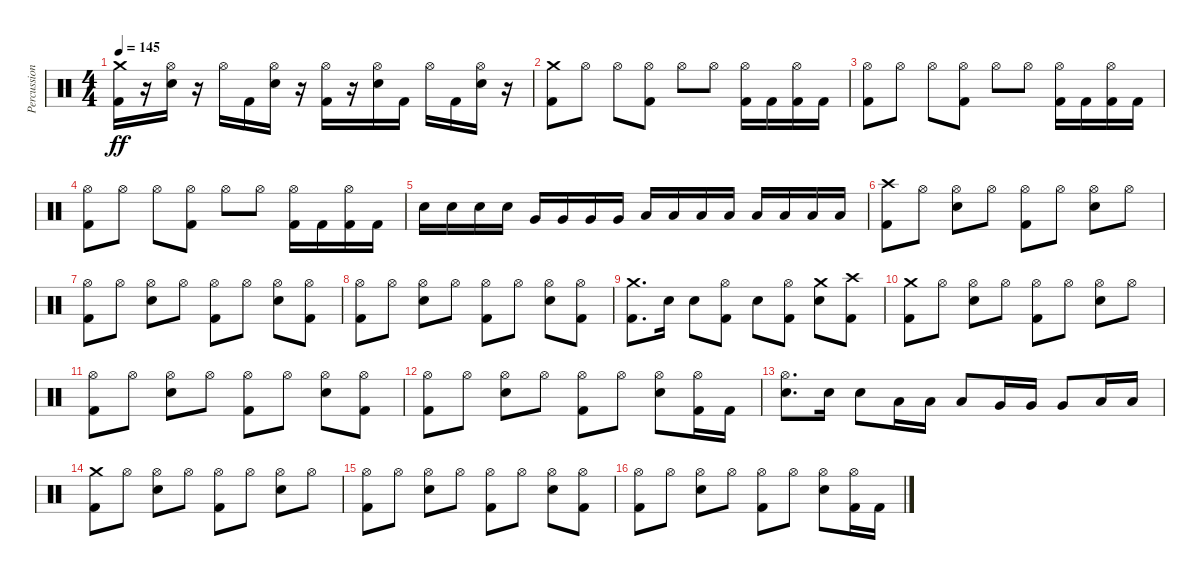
\track ("Percussion" "Percussion") {instrument percussion}
\staff {score}
\articulation defaults
\ts (4 4)
\tempo 145
\clef neutral
\ks c
("Crash medium (hit)" "Kick (hit) 2").16{dy ff} r.16 ("Hi-Hat (open)" "Electric Snare (hit)").16 r.16 "Hi-Hat (open)".16 "Kick (hit) 2".16 ("Hi-Hat (open)" "Electric Snare (hit)").16 r.16 ("Hi-Hat (open)" "Kick (hit) 2").16 r.16 ("Hi-Hat (open)" "Electric Snare (hit)").16 "Kick (hit) 2".16 "Hi-Hat (open)".16 "Kick (hit) 2".16 ("Hi-Hat (open)" "Electric Snare (hit)").16 r.16 |
("Crash medium (hit)" "Kick (hit) 2").8 "Hi-Hat (open)".8 "Hi-Hat (open)".8 ("Hi-Hat (open)" "Kick (hit) 2").8 "Hi-Hat (open)".8 "Hi-Hat (open)".8 ("Hi-Hat (open)" "Kick (hit) 2").16 "Kick (hit) 2".16 ("Hi-Hat (open)" "Kick (hit) 2").16 "Kick (hit) 2".16 |
("Hi-Hat (open)" "Kick (hit) 2").8 "Hi-Hat (open)".8 "Hi-Hat (open)".8 ("Hi-Hat (open)" "Kick (hit) 2").8 "Hi-Hat (open)".8 "Hi-Hat (open)".8 ("Hi-Hat (open)" "Kick (hit) 2").16 "Kick (hit) 2".16 ("Hi-Hat (open)" "Kick (hit) 2").16 "Kick (hit) 2".16 |
("Hi-Hat (open)" "Kick (hit) 2").8 "Hi-Hat (open)".8 "Hi-Hat (open)".8 ("Hi-Hat (open)" "Kick (hit) 2").8 "Hi-Hat (open)".8 "Hi-Hat (open)".8 ("Hi-Hat (open)" "Kick (hit) 2").16 "Kick (hit) 2".16 ("Hi-Hat (open)" "Kick (hit) 2").16 "Kick (hit) 2".16 |
"Snare (hit) 2".16 "Snare (hit) 2".16 "Snare (hit) 2".16 "Snare (hit) 2".16 "Very Low Tom (hit)".16 "Very Low Tom (hit)".16 "Very Low Tom (hit)".16 "Very Low Tom (hit)".16 "Low Tom (hit)".16 "Low Tom (hit)".16 "Low Tom (hit)".16 "Low Tom (hit)".16 "Low Floor Tom (hit)".16 "Low Floor Tom (hit)".16 "Low Floor Tom (hit)".16 "Low Floor Tom (hit)".16 |
("Crash high (hit)" "Kick (hit) 2").8 "Hi-Hat (open)".8 ("Hi-Hat (open)" "Electric Snare (hit)").8 "Hi-Hat (open)".8 ("Hi-Hat (open)" "Kick (hit) 2").8 "Hi-Hat (open)".8 ("Hi-Hat (open)" "Electric Snare (hit)").8 "Hi-Hat (open)".8 |
("Hi-Hat (open)" "Kick (hit) 2").8 "Hi-Hat (open)".8 ("Hi-Hat (open)" "Electric Snare (hit)").8 "Hi-Hat (open)".8 ("Hi-Hat (open)" "Kick (hit) 2").8 "Hi-Hat (open)".8 ("Hi-Hat (open)" "Electric Snare (hit)").8 ("Hi-Hat (open)" "Kick (hit) 2").8 |
("Hi-Hat (open)" "Kick (hit) 2").8 "Hi-Hat (open)".8 ("Hi-Hat (open)" "Electric Snare (hit)").8 "Hi-Hat (open)".8 ("Hi-Hat (open)" "Kick (hit) 2").8 "Hi-Hat (open)".8 ("Hi-Hat (open)" "Electric Snare (hit)").8 ("Hi-Hat (open)" "Kick (hit) 2").8 |
("Crash medium (hit)" "Kick (hit) 2").8{d} "Electric Snare (hit)".16 "Electric Snare (hit)".8 ("Hi-Hat (open)" "Kick (hit) 2").8 "Electric Snare (hit)".8 ("Hi-Hat (open)" "Kick (hit) 2").8 ("Crash medium (hit)" "Electric Snare (hit)").8 ("Crash high (hit)" "Kick (hit) 2").8 |
("Crash medium (hit)" "Kick (hit) 2").8 "Hi-Hat (open)".8 ("Hi-Hat (open)" "Electric Snare (hit)").8 "Hi-Hat (open)".8 ("Hi-Hat (open)" "Kick (hit) 2").8 "Hi-Hat (open)".8 ("Hi-Hat (open)" "Electric Snare (hit)").8 "Hi-Hat (open)".8 |
("Hi-Hat (open)" "Kick (hit) 2").8 "Hi-Hat (open)".8 ("Hi-Hat (open)" "Electric Snare (hit)").8 "Hi-Hat (open)".8 ("Hi-Hat (open)" "Kick (hit) 2").8 "Hi-Hat (open)".8 ("Hi-Hat (open)" "Electric Snare (hit)").8 ("Hi-Hat (open)" "Kick (hit) 2").8 |
("Hi-Hat (open)" "Kick (hit) 2").8 "Hi-Hat (open)".8 ("Hi-Hat (open)" "Electric Snare (hit)").8 "Hi-Hat (open)".8 ("Hi-Hat (open)" "Kick (hit) 2").8 "Hi-Hat (open)".8 ("Hi-Hat (open)" "Electric Snare (hit)").8 ("Hi-Hat (open)" "Kick (hit) 2").16 "Kick (hit) 2".16 |
("Electric Snare (hit)" "Hi-Hat (open)").8{d} "Electric Snare (hit)".16 "Electric Snare (hit)".8 "Low Tom (hit)".16 "Low Tom (hit)".16 "Low Tom (hit)".8 "Very Low Tom (hit)".16 "Very Low Tom (hit)".16 "Very Low Tom (hit)".8 "Low Floor Tom (hit)".16 "Low Floor Tom (hit)".16 |
("Crash medium (hit)" "Kick (hit) 2").8 "Hi-Hat (open)".8 ("Hi-Hat (open)" "Electric Snare (hit)").8 "Hi-Hat (open)".8 ("Hi-Hat (open)" "Kick (hit) 2").8 "Hi-Hat (open)".8 ("Hi-Hat (open)" "Electric Snare (hit)").8 "Hi-Hat (open)".8 |
("Hi-Hat (open)" "Kick (hit) 2").8 "Hi-Hat (open)".8 ("Hi-Hat (open)" "Electric Snare (hit)").8 "Hi-Hat (open)".8 ("Hi-Hat (open)" "Kick (hit) 2").8 "Hi-Hat (open)".8 ("Hi-Hat (open)" "Electric Snare (hit)").8 ("Hi-Hat (open)" "Kick (hit) 2").8 |
("Hi-Hat (open)" "Kick (hit) 2").8 "Hi-Hat (open)".8 ("Hi-Hat (open)" "Electric Snare (hit)").8 "Hi-Hat (open)".8 ("Hi-Hat (open)" "Kick (hit) 2").8 "Hi-Hat (open)".8 ("Hi-Hat (open)" "Electric Snare (hit)").8 ("Hi-Hat (open)" "Kick (hit) 2").16 "Kick (hit) 2".16
